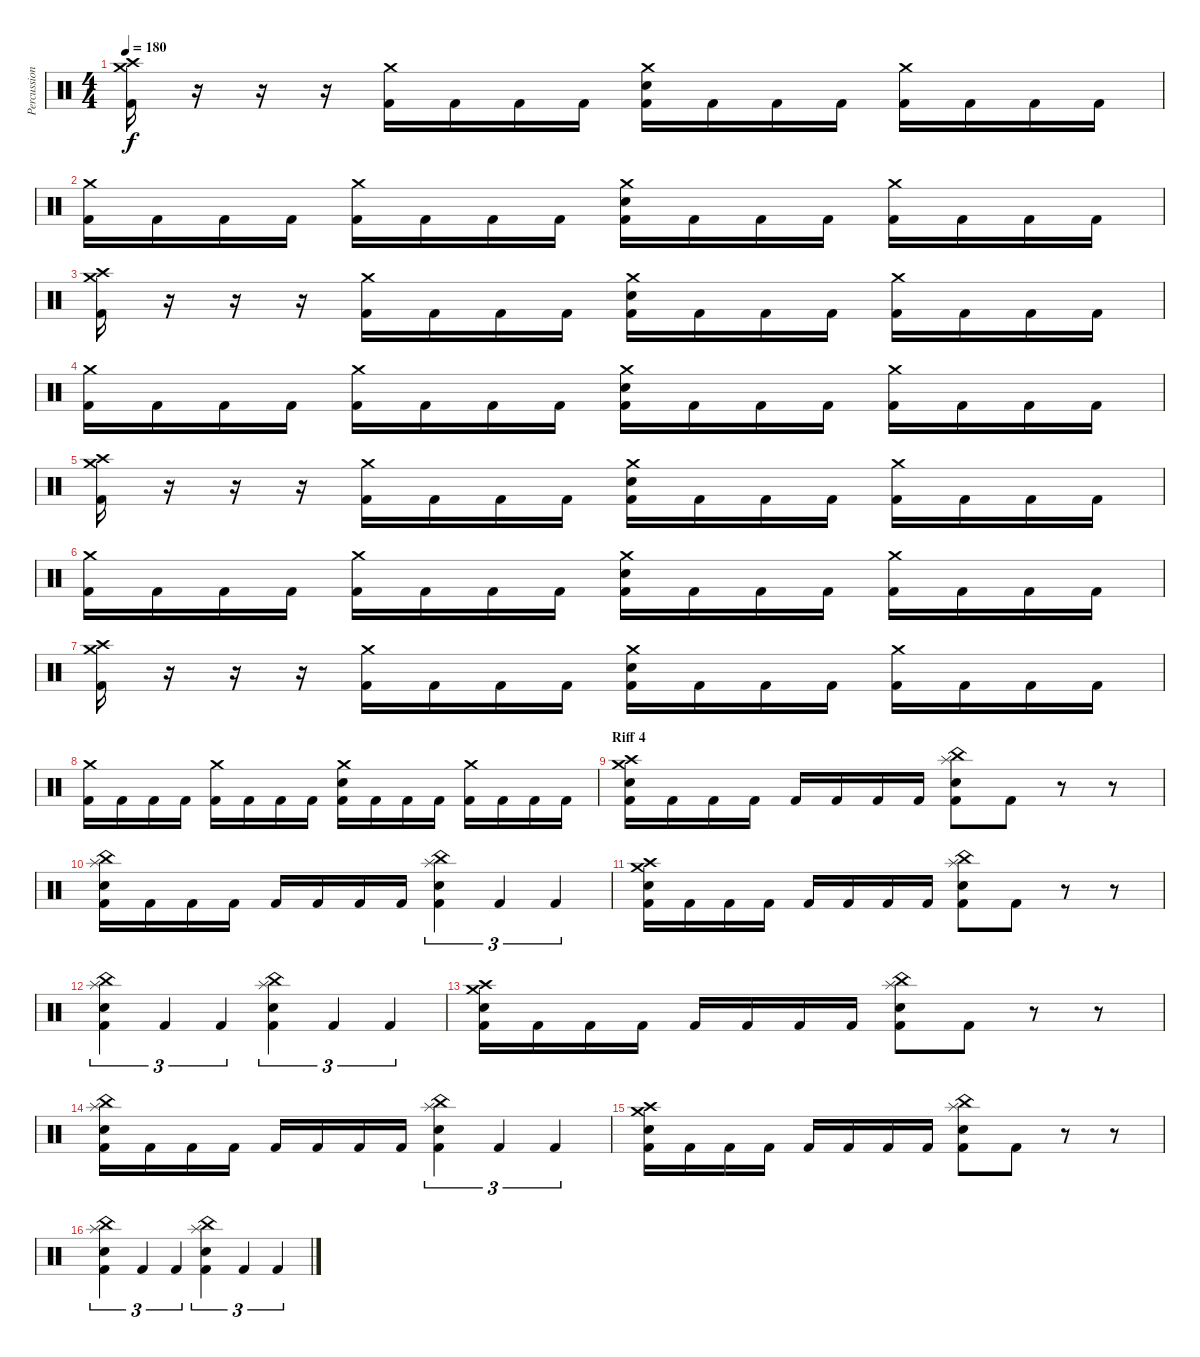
\track ("Percussion" "Percussion") {instrument percussion}
\staff {score}
\articulation defaults
\ts (4 4)
\tempo 180
\clef neutral
\ks c
("Crash medium (hit)" "Crash high (hit)" "Kick (hit) 2").16{dy f} r.16 r.16 r.16 ("Crash medium (hit)" "Kick (hit) 2").16 "Kick (hit) 2".16 "Kick (hit) 2".16 "Kick (hit) 2".16 ("Crash medium (hit)" "Electric Snare (hit)" "Kick (hit) 2").16 "Kick (hit) 2".16 "Kick (hit) 2".16 "Kick (hit) 2".16 ("Crash medium (hit)" "Kick (hit) 2").16 "Kick (hit) 2".16 "Kick (hit) 2".16 "Kick (hit) 2".16 |
("Crash medium (hit)" "Kick (hit) 2").16 "Kick (hit) 2".16 "Kick (hit) 2".16 "Kick (hit) 2".16 ("Crash medium (hit)" "Kick (hit) 2").16 "Kick (hit) 2".16 "Kick (hit) 2".16 "Kick (hit) 2".16 ("Crash medium (hit)" "Electric Snare (hit)" "Kick (hit) 2").16 "Kick (hit) 2".16 "Kick (hit) 2".16 "Kick (hit) 2".16 ("Crash medium (hit)" "Kick (hit) 2").16 "Kick (hit) 2".16 "Kick (hit) 2".16 "Kick (hit) 2".16 |
("Crash medium (hit)" "Crash high (hit)" "Kick (hit) 2").16 r.16 r.16 r.16 ("Crash medium (hit)" "Kick (hit) 2").16 "Kick (hit) 2".16 "Kick (hit) 2".16 "Kick (hit) 2".16 ("Crash medium (hit)" "Electric Snare (hit)" "Kick (hit) 2").16 "Kick (hit) 2".16 "Kick (hit) 2".16 "Kick (hit) 2".16 ("Crash medium (hit)" "Kick (hit) 2").16 "Kick (hit) 2".16 "Kick (hit) 2".16 "Kick (hit) 2".16 |
("Crash medium (hit)" "Kick (hit) 2").16 "Kick (hit) 2".16 "Kick (hit) 2".16 "Kick (hit) 2".16 ("Crash medium (hit)" "Kick (hit) 2").16 "Kick (hit) 2".16 "Kick (hit) 2".16 "Kick (hit) 2".16 ("Crash medium (hit)" "Electric Snare (hit)" "Kick (hit) 2").16 "Kick (hit) 2".16 "Kick (hit) 2".16 "Kick (hit) 2".16 ("Crash medium (hit)" "Kick (hit) 2").16 "Kick (hit) 2".16 "Kick (hit) 2".16 "Kick (hit) 2".16 |
("Crash medium (hit)" "Crash high (hit)" "Kick (hit) 2").16 r.16 r.16 r.16 ("Crash medium (hit)" "Kick (hit) 2").16 "Kick (hit) 2".16 "Kick (hit) 2".16 "Kick (hit) 2".16 ("Crash medium (hit)" "Electric Snare (hit)" "Kick (hit) 2").16 "Kick (hit) 2".16 "Kick (hit) 2".16 "Kick (hit) 2".16 ("Crash medium (hit)" "Kick (hit) 2").16 "Kick (hit) 2".16 "Kick (hit) 2".16 "Kick (hit) 2".16 |
("Crash medium (hit)" "Kick (hit) 2").16 "Kick (hit) 2".16 "Kick (hit) 2".16 "Kick (hit) 2".16 ("Crash medium (hit)" "Kick (hit) 2").16 "Kick (hit) 2".16 "Kick (hit) 2".16 "Kick (hit) 2".16 ("Crash medium (hit)" "Electric Snare (hit)" "Kick (hit) 2").16 "Kick (hit) 2".16 "Kick (hit) 2".16 "Kick (hit) 2".16 ("Crash medium (hit)" "Kick (hit) 2").16 "Kick (hit) 2".16 "Kick (hit) 2".16 "Kick (hit) 2".16 |
("Crash medium (hit)" "Crash high (hit)" "Kick (hit) 2").16 r.16 r.16 r.16 ("Crash medium (hit)" "Kick (hit) 2").16 "Kick (hit) 2".16 "Kick (hit) 2".16 "Kick (hit) 2".16 ("Crash medium (hit)" "Electric Snare (hit)" "Kick (hit) 2").16 "Kick (hit) 2".16 "Kick (hit) 2".16 "Kick (hit) 2".16 ("Crash medium (hit)" "Kick (hit) 2").16 "Kick (hit) 2".16 "Kick (hit) 2".16 "Kick (hit) 2".16 |
("Crash medium (hit)" "Kick (hit) 2").16 "Kick (hit) 2".16 "Kick (hit) 2".16 "Kick (hit) 2".16 ("Crash medium (hit)" "Kick (hit) 2").16 "Kick (hit) 2".16 "Kick (hit) 2".16 "Kick (hit) 2".16 ("Crash medium (hit)" "Electric Snare (hit)" "Kick (hit) 2").16 "Kick (hit) 2".16 "Kick (hit) 2".16 "Kick (hit) 2".16 ("Crash medium (hit)" "Kick (hit) 2").16 "Kick (hit) 2".16 "Kick (hit) 2".16 "Kick (hit) 2".16 |
\section ("" "Riff 4")
("Crash medium (hit)" "Crash high (hit)" "Electric Snare (hit)" "Kick (hit) 2").16 "Kick (hit) 2".16 "Kick (hit) 2".16 "Kick (hit) 2".16 "Kick (hit) 2".16 "Kick (hit) 2".16 "Kick (hit) 2".16 "Kick (hit) 2".16 ("Splash (hit)" "China (hit)" "Electric Snare (hit)" "Kick (hit) 2").8 "Kick (hit) 2".8 r.8 r.8 |
("Splash (hit)" "China (hit)" "Electric Snare (hit)" "Kick (hit) 2").16 "Kick (hit) 2".16 "Kick (hit) 2".16 "Kick (hit) 2".16 "Kick (hit) 2".16 "Kick (hit) 2".16 "Kick (hit) 2".16 "Kick (hit) 2".16 ("Splash (hit)" "China (hit)" "Electric Snare (hit)" "Kick (hit) 2").4{tu (3 2)} "Kick (hit) 2".4{tu (3 2)} "Kick (hit) 2".4{tu (3 2)} |
("Crash medium (hit)" "Crash high (hit)" "Electric Snare (hit)" "Kick (hit) 2").16 "Kick (hit) 2".16 "Kick (hit) 2".16 "Kick (hit) 2".16 "Kick (hit) 2".16 "Kick (hit) 2".16 "Kick (hit) 2".16 "Kick (hit) 2".16 ("Splash (hit)" "China (hit)" "Electric Snare (hit)" "Kick (hit) 2").8 "Kick (hit) 2".8 r.8 r.8 |
("Splash (hit)" "China (hit)" "Electric Snare (hit)" "Kick (hit) 2").4{tu (3 2)} "Kick (hit) 2".4{tu (3 2)} "Kick (hit) 2".4{tu (3 2)} ("Splash (hit)" "China (hit)" "Electric Snare (hit)" "Kick (hit) 2").4{tu (3 2)} "Kick (hit) 2".4{tu (3 2)} "Kick (hit) 2".4{tu (3 2)} |
("Crash medium (hit)" "Crash high (hit)" "Electric Snare (hit)" "Kick (hit) 2").16 "Kick (hit) 2".16 "Kick (hit) 2".16 "Kick (hit) 2".16 "Kick (hit) 2".16 "Kick (hit) 2".16 "Kick (hit) 2".16 "Kick (hit) 2".16 ("Splash (hit)" "China (hit)" "Electric Snare (hit)" "Kick (hit) 2").8 "Kick (hit) 2".8 r.8 r.8 |
("Splash (hit)" "China (hit)" "Electric Snare (hit)" "Kick (hit) 2").16 "Kick (hit) 2".16 "Kick (hit) 2".16 "Kick (hit) 2".16 "Kick (hit) 2".16 "Kick (hit) 2".16 "Kick (hit) 2".16 "Kick (hit) 2".16 ("Splash (hit)" "China (hit)" "Electric Snare (hit)" "Kick (hit) 2").4{tu (3 2)} "Kick (hit) 2".4{tu (3 2)} "Kick (hit) 2".4{tu (3 2)} |
("Crash medium (hit)" "Crash high (hit)" "Electric Snare (hit)" "Kick (hit) 2").16 "Kick (hit) 2".16 "Kick (hit) 2".16 "Kick (hit) 2".16 "Kick (hit) 2".16 "Kick (hit) 2".16 "Kick (hit) 2".16 "Kick (hit) 2".16 ("Splash (hit)" "China (hit)" "Electric Snare (hit)" "Kick (hit) 2").8 "Kick (hit) 2".8 r.8 r.8 |
("Splash (hit)" "China (hit)" "Electric Snare (hit)" "Kick (hit) 2").4{tu (3 2)} "Kick (hit) 2".4{tu (3 2)} "Kick (hit) 2".4{tu (3 2)} ("Splash (hit)" "China (hit)" "Electric Snare (hit)" "Kick (hit) 2").4{tu (3 2)} "Kick (hit) 2".4{tu (3 2)} "Kick (hit) 2".4{tu (3 2)}
